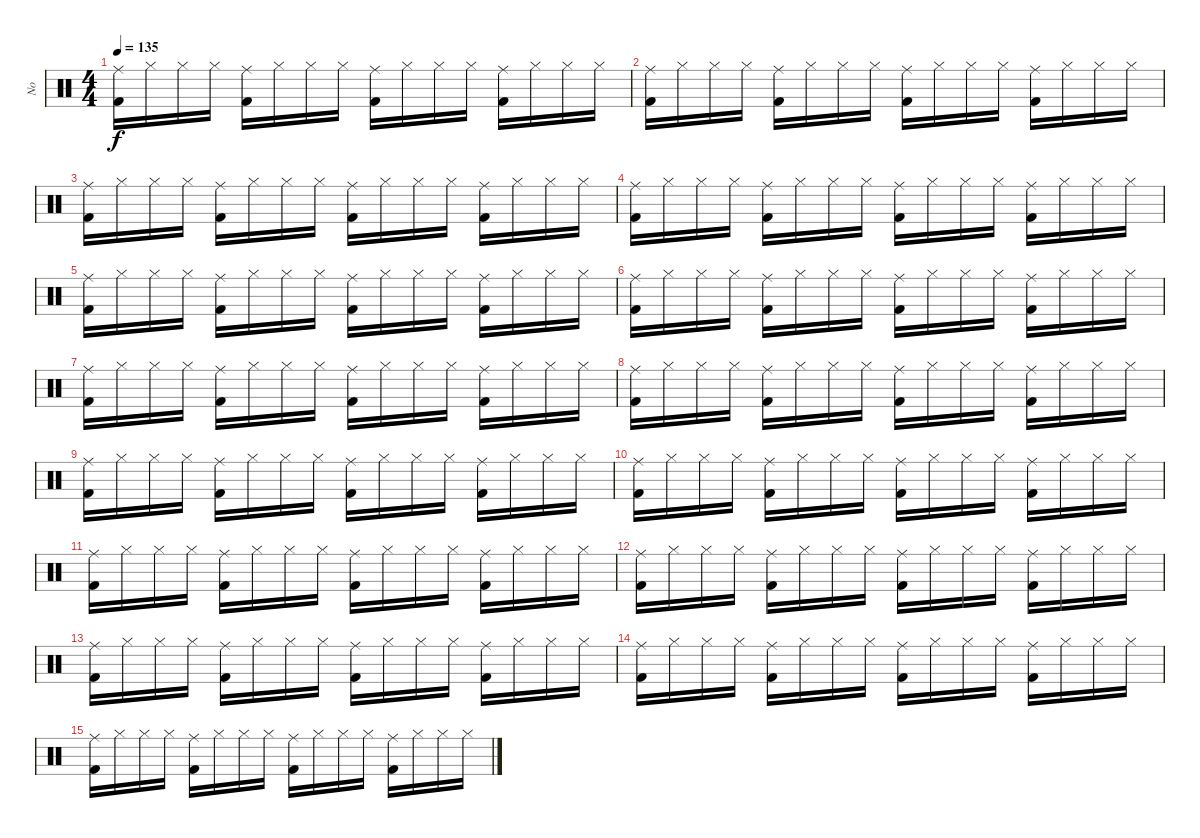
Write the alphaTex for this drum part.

\track ("No" "No") {instrument percussion}
\staff {score}
\articulation defaults
\ts (4 4)
\tempo 135
\clef neutral
\ks c
("Kick (hit) 2" "Ride (middle)").16{dy f} "Hi-Hat (closed)".16 "Hi-Hat (closed)".16 "Hi-Hat (closed)".16 ("Kick (hit) 2" "Ride (middle)").16 "Hi-Hat (closed)".16 "Hi-Hat (closed)".16 "Hi-Hat (closed)".16 ("Kick (hit) 2" "Ride (middle)").16 "Hi-Hat (closed)".16 "Hi-Hat (closed)".16 "Hi-Hat (closed)".16 ("Kick (hit) 2" "Ride (middle)").16 "Hi-Hat (closed)".16 "Hi-Hat (closed)".16 "Hi-Hat (closed)".16 |
("Kick (hit) 2" "Ride (middle)").16 "Hi-Hat (closed)".16 "Hi-Hat (closed)".16 "Hi-Hat (closed)".16 ("Kick (hit) 2" "Ride (middle)").16 "Hi-Hat (closed)".16 "Hi-Hat (closed)".16 "Hi-Hat (closed)".16 ("Kick (hit) 2" "Ride (middle)").16 "Hi-Hat (closed)".16 "Hi-Hat (closed)".16 "Hi-Hat (closed)".16 ("Kick (hit) 2" "Ride (middle)").16 "Hi-Hat (closed)".16 "Hi-Hat (closed)".16 "Hi-Hat (closed)".16 |
("Kick (hit) 2" "Ride (middle)").16 "Hi-Hat (closed)".16 "Hi-Hat (closed)".16 "Hi-Hat (closed)".16 ("Kick (hit) 2" "Ride (middle)").16 "Hi-Hat (closed)".16 "Hi-Hat (closed)".16 "Hi-Hat (closed)".16 ("Kick (hit) 2" "Ride (middle)").16 "Hi-Hat (closed)".16 "Hi-Hat (closed)".16 "Hi-Hat (closed)".16 ("Kick (hit) 2" "Ride (middle)").16 "Hi-Hat (closed)".16 "Hi-Hat (closed)".16 "Hi-Hat (closed)".16 |
("Kick (hit) 2" "Ride (middle)").16 "Hi-Hat (closed)".16 "Hi-Hat (closed)".16 "Hi-Hat (closed)".16 ("Kick (hit) 2" "Ride (middle)").16 "Hi-Hat (closed)".16 "Hi-Hat (closed)".16 "Hi-Hat (closed)".16 ("Kick (hit) 2" "Ride (middle)").16 "Hi-Hat (closed)".16 "Hi-Hat (closed)".16 "Hi-Hat (closed)".16 ("Kick (hit) 2" "Ride (middle)").16 "Hi-Hat (closed)".16 "Hi-Hat (closed)".16 "Hi-Hat (closed)".16 |
("Kick (hit) 2" "Ride (middle)").16 "Hi-Hat (closed)".16 "Hi-Hat (closed)".16 "Hi-Hat (closed)".16 ("Kick (hit) 2" "Ride (middle)").16 "Hi-Hat (closed)".16 "Hi-Hat (closed)".16 "Hi-Hat (closed)".16 ("Kick (hit) 2" "Ride (middle)").16 "Hi-Hat (closed)".16 "Hi-Hat (closed)".16 "Hi-Hat (closed)".16 ("Kick (hit) 2" "Ride (middle)").16 "Hi-Hat (closed)".16 "Hi-Hat (closed)".16 "Hi-Hat (closed)".16 |
("Kick (hit) 2" "Ride (middle)").16 "Hi-Hat (closed)".16 "Hi-Hat (closed)".16 "Hi-Hat (closed)".16 ("Kick (hit) 2" "Ride (middle)").16 "Hi-Hat (closed)".16 "Hi-Hat (closed)".16 "Hi-Hat (closed)".16 ("Kick (hit) 2" "Ride (middle)").16 "Hi-Hat (closed)".16 "Hi-Hat (closed)".16 "Hi-Hat (closed)".16 ("Kick (hit) 2" "Ride (middle)").16 "Hi-Hat (closed)".16 "Hi-Hat (closed)".16 "Hi-Hat (closed)".16 |
("Kick (hit) 2" "Ride (middle)").16 "Hi-Hat (closed)".16 "Hi-Hat (closed)".16 "Hi-Hat (closed)".16 ("Kick (hit) 2" "Ride (middle)").16 "Hi-Hat (closed)".16 "Hi-Hat (closed)".16 "Hi-Hat (closed)".16 ("Kick (hit) 2" "Ride (middle)").16 "Hi-Hat (closed)".16 "Hi-Hat (closed)".16 "Hi-Hat (closed)".16 ("Kick (hit) 2" "Ride (middle)").16 "Hi-Hat (closed)".16 "Hi-Hat (closed)".16 "Hi-Hat (closed)".16 |
("Kick (hit) 2" "Ride (middle)").16 "Hi-Hat (closed)".16 "Hi-Hat (closed)".16 "Hi-Hat (closed)".16 ("Kick (hit) 2" "Ride (middle)").16 "Hi-Hat (closed)".16 "Hi-Hat (closed)".16 "Hi-Hat (closed)".16 ("Kick (hit) 2" "Ride (middle)").16 "Hi-Hat (closed)".16 "Hi-Hat (closed)".16 "Hi-Hat (closed)".16 ("Kick (hit) 2" "Ride (middle)").16 "Hi-Hat (closed)".16 "Hi-Hat (closed)".16 "Hi-Hat (closed)".16 |
("Kick (hit) 2" "Ride (middle)").16 "Hi-Hat (closed)".16 "Hi-Hat (closed)".16 "Hi-Hat (closed)".16 ("Kick (hit) 2" "Ride (middle)").16 "Hi-Hat (closed)".16 "Hi-Hat (closed)".16 "Hi-Hat (closed)".16 ("Kick (hit) 2" "Ride (middle)").16 "Hi-Hat (closed)".16 "Hi-Hat (closed)".16 "Hi-Hat (closed)".16 ("Kick (hit) 2" "Ride (middle)").16 "Hi-Hat (closed)".16 "Hi-Hat (closed)".16 "Hi-Hat (closed)".16 |
("Kick (hit) 2" "Ride (middle)").16 "Hi-Hat (closed)".16 "Hi-Hat (closed)".16 "Hi-Hat (closed)".16 ("Kick (hit) 2" "Ride (middle)").16 "Hi-Hat (closed)".16 "Hi-Hat (closed)".16 "Hi-Hat (closed)".16 ("Kick (hit) 2" "Ride (middle)").16 "Hi-Hat (closed)".16 "Hi-Hat (closed)".16 "Hi-Hat (closed)".16 ("Kick (hit) 2" "Ride (middle)").16 "Hi-Hat (closed)".16 "Hi-Hat (closed)".16 "Hi-Hat (closed)".16 |
("Kick (hit) 2" "Ride (middle)").16 "Hi-Hat (closed)".16 "Hi-Hat (closed)".16 "Hi-Hat (closed)".16 ("Kick (hit) 2" "Ride (middle)").16 "Hi-Hat (closed)".16 "Hi-Hat (closed)".16 "Hi-Hat (closed)".16 ("Kick (hit) 2" "Ride (middle)").16 "Hi-Hat (closed)".16 "Hi-Hat (closed)".16 "Hi-Hat (closed)".16 ("Kick (hit) 2" "Ride (middle)").16 "Hi-Hat (closed)".16 "Hi-Hat (closed)".16 "Hi-Hat (closed)".16 |
("Kick (hit) 2" "Ride (middle)").16 "Hi-Hat (closed)".16 "Hi-Hat (closed)".16 "Hi-Hat (closed)".16 ("Kick (hit) 2" "Ride (middle)").16 "Hi-Hat (closed)".16 "Hi-Hat (closed)".16 "Hi-Hat (closed)".16 ("Kick (hit) 2" "Ride (middle)").16 "Hi-Hat (closed)".16 "Hi-Hat (closed)".16 "Hi-Hat (closed)".16 ("Kick (hit) 2" "Ride (middle)").16 "Hi-Hat (closed)".16 "Hi-Hat (closed)".16 "Hi-Hat (closed)".16 |
("Kick (hit) 2" "Ride (middle)").16 "Hi-Hat (closed)".16 "Hi-Hat (closed)".16 "Hi-Hat (closed)".16 ("Kick (hit) 2" "Ride (middle)").16 "Hi-Hat (closed)".16 "Hi-Hat (closed)".16 "Hi-Hat (closed)".16 ("Kick (hit) 2" "Ride (middle)").16 "Hi-Hat (closed)".16 "Hi-Hat (closed)".16 "Hi-Hat (closed)".16 ("Kick (hit) 2" "Ride (middle)").16 "Hi-Hat (closed)".16 "Hi-Hat (closed)".16 "Hi-Hat (closed)".16 |
("Kick (hit) 2" "Ride (middle)").16 "Hi-Hat (closed)".16 "Hi-Hat (closed)".16 "Hi-Hat (closed)".16 ("Kick (hit) 2" "Ride (middle)").16 "Hi-Hat (closed)".16 "Hi-Hat (closed)".16 "Hi-Hat (closed)".16 ("Kick (hit) 2" "Ride (middle)").16 "Hi-Hat (closed)".16 "Hi-Hat (closed)".16 "Hi-Hat (closed)".16 ("Kick (hit) 2" "Ride (middle)").16 "Hi-Hat (closed)".16 "Hi-Hat (closed)".16 "Hi-Hat (closed)".16 |
("Kick (hit) 2" "Ride (middle)").16 "Hi-Hat (closed)".16 "Hi-Hat (closed)".16 "Hi-Hat (closed)".16 ("Kick (hit) 2" "Ride (middle)").16 "Hi-Hat (closed)".16 "Hi-Hat (closed)".16 "Hi-Hat (closed)".16 ("Kick (hit) 2" "Ride (middle)").16 "Hi-Hat (closed)".16 "Hi-Hat (closed)".16 "Hi-Hat (closed)".16 ("Kick (hit) 2" "Ride (middle)").16 "Hi-Hat (closed)".16 "Hi-Hat (closed)".16 "Hi-Hat (closed)".16
